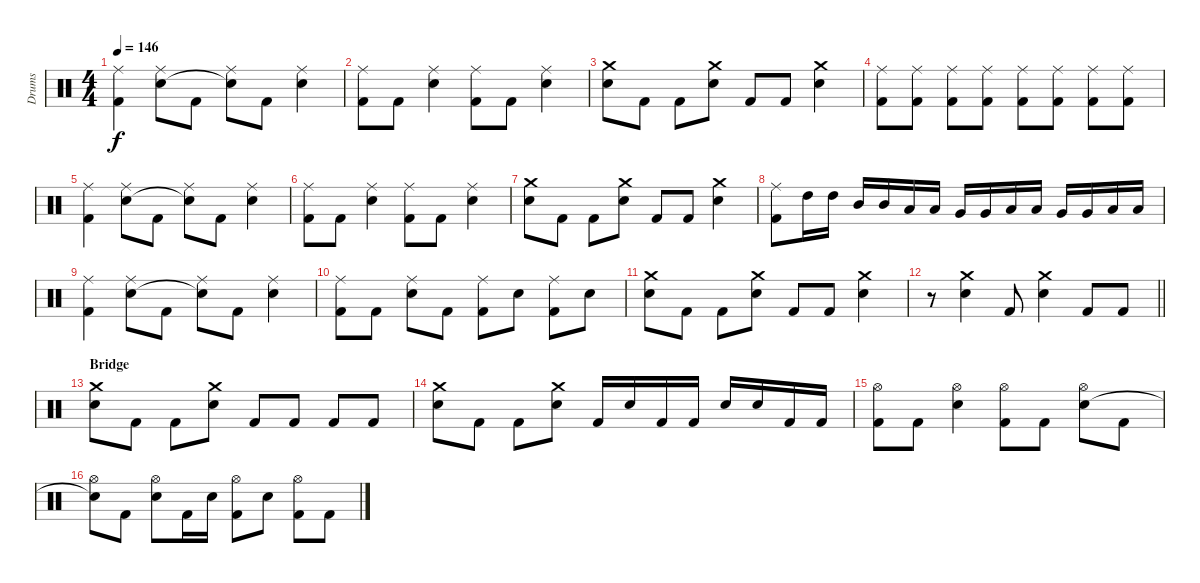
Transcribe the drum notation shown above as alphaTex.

\track ("Drums" "Drums") {instrument percussion}
\staff {score}
\articulation defaults
\ts (4 4)
\tempo 146
\clef neutral
\ks c
("Ride (middle)" "Kick (hit) 2").4{dy f} ("Ride (middle)" "Electric Snare (hit)").8 "Kick (hit) 2".8 ("Ride (middle)" "Snare (hit)"{t}).8 "Kick (hit) 2".8 ("Ride (middle)" "Electric Snare (hit)").4 |
("Ride (middle)" "Kick (hit) 2").8 "Kick (hit) 2".8 ("Ride (middle)" "Electric Snare (hit)").4 ("Ride (middle)" "Kick (hit) 2").8 "Kick (hit) 2".8 ("Ride (middle)" "Electric Snare (hit)").4 |
("Crash medium (hit)" "Electric Snare (hit)").8 "Kick (hit) 2".8 "Kick (hit) 2".8 ("Crash medium (hit)" "Electric Snare (hit)").8 "Kick (hit) 2".8 "Kick (hit) 2".8 ("Crash medium (hit)" "Electric Snare (hit)").4 |
("Ride (middle)" "Kick (hit) 2").8 ("Ride (middle)" "Kick (hit) 2").8 ("Ride (middle)" "Kick (hit) 2").8 ("Ride (middle)" "Kick (hit) 2").8 ("Ride (middle)" "Kick (hit) 2").8 ("Ride (middle)" "Kick (hit) 2").8 ("Ride (middle)" "Kick (hit) 2").8 ("Ride (middle)" "Kick (hit) 2").8 |
("Ride (middle)" "Kick (hit) 2").4 ("Ride (middle)" "Electric Snare (hit)").8 "Kick (hit) 2".8 ("Ride (middle)" "Snare (hit)"{t}).8 "Kick (hit) 2".8 ("Ride (middle)" "Electric Snare (hit)").4 |
("Ride (middle)" "Kick (hit) 2").8 "Kick (hit) 2".8 ("Ride (middle)" "Electric Snare (hit)").4 ("Ride (middle)" "Kick (hit) 2").8 "Kick (hit) 2".8 ("Ride (middle)" "Electric Snare (hit)").4 |
("Crash medium (hit)" "Electric Snare (hit)").8 "Kick (hit) 2".8 "Kick (hit) 2".8 ("Crash medium (hit)" "Electric Snare (hit)").8 "Kick (hit) 2".8 "Kick (hit) 2".8 ("Crash medium (hit)" "Electric Snare (hit)").4 |
("Ride (middle)" "Kick (hit) 2").8 "High Tom (hit)".16 "High Tom (hit)".16 "Mid Tom (hit)".16 "Mid Tom (hit)".16 "Low Tom (hit)".16 "Low Tom (hit)".16 "Very Low Tom (hit)".16 "Very Low Tom (hit)".16 "Low Floor Tom (hit)".16 "Low Floor Tom (hit)".16 "Very Low Tom (hit)".16 "Very Low Tom (hit)".16 "Low Tom (hit)".16 "Low Tom (hit)".16 |
("Ride (middle)" "Kick (hit) 2").4 ("Ride (middle)" "Electric Snare (hit)").8 "Kick (hit) 2".8 ("Ride (middle)" "Snare (hit)"{t}).8 "Kick (hit) 2".8 ("Ride (middle)" "Electric Snare (hit)").4 |
("Ride (middle)" "Kick (hit) 2").8 "Kick (hit) 2".8 ("Ride (middle)" "Electric Snare (hit)").8 "Kick (hit) 2".8 ("Ride (middle)" "Kick (hit) 2").8 "Electric Snare (hit)".8 ("Ride (middle)" "Kick (hit) 2").8 "Electric Snare (hit)".8 |
("Crash medium (hit)" "Electric Snare (hit)").8 "Kick (hit) 2".8 "Kick (hit) 2".8 ("Crash medium (hit)" "Electric Snare (hit)").8 "Kick (hit) 2".8 "Kick (hit) 2".8 ("Crash medium (hit)" "Electric Snare (hit)").4 |
\barLineRight lightlight
r.8 ("Crash medium (hit)" "Electric Snare (hit)").4 "Kick (hit) 2".8 ("Crash medium (hit)" "Electric Snare (hit)").4 "Kick (hit) 2".8 "Kick (hit) 2".8 |
\section ("" "Bridge")
("Crash medium (hit)" "Electric Snare (hit)").8 "Kick (hit) 2".8 "Kick (hit) 2".8 ("Crash medium (hit)" "Electric Snare (hit)").8 "Kick (hit) 2".8 "Kick (hit) 2".8 "Kick (hit) 2".8 "Kick (hit) 2".8 |
("Crash medium (hit)" "Electric Snare (hit)").8 "Kick (hit) 2".8 "Kick (hit) 2".8 ("Crash medium (hit)" "Electric Snare (hit)").8 "Kick (hit) 2".16 "Electric Snare (hit)".16 "Kick (hit) 2".16 "Kick (hit) 2".16 "Electric Snare (hit)".16 "Electric Snare (hit)".16 "Kick (hit) 2".16 "Kick (hit) 2".16 |
("Hi-Hat (open)" "Kick (hit) 2").8 "Kick (hit) 2".8 ("Hi-Hat (open)" "Electric Snare (hit)").4 ("Hi-Hat (open)" "Kick (hit) 2").8 "Kick (hit) 2".8 ("Hi-Hat (open)" "Electric Snare (hit)").8 "Kick (hit) 2".8 |
("Hi-Hat (open)" "Snare (hit)"{t}).8 "Kick (hit) 2".8 ("Hi-Hat (open)" "Electric Snare (hit)").8 "Kick (hit) 2".16 "Electric Snare (hit)".16 ("Hi-Hat (open)" "Kick (hit) 2").8 "Electric Snare (hit)".8 ("Hi-Hat (open)" "Kick (hit) 2").8 "Kick (hit) 2".8
